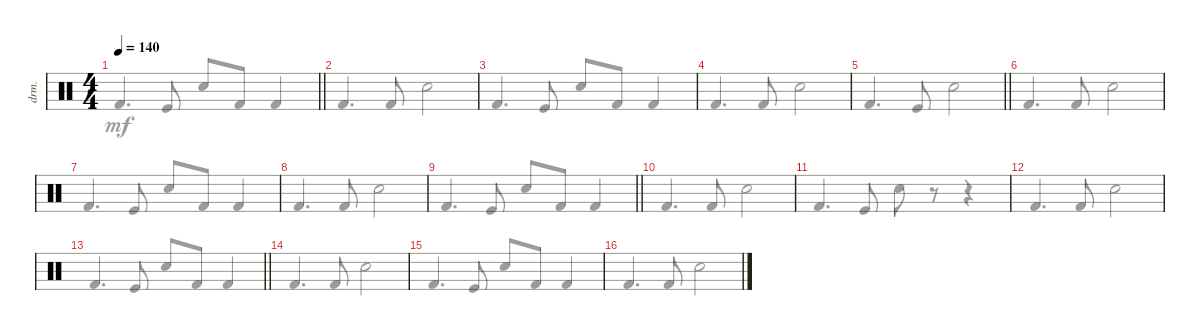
\defaultSystemsLayout 4
\bracketExtendMode groupsimilarinstruments
\otherSystemsTrackNameOrientation horizontal
\chordDiagramsInScore
\track ("Drumkit" "drm.") {instrument percussion}
\staff {score}
\articulation defaults
\voice
\ts (4 4)
\tempo 140
\clef neutral
\barLineRight lightlight
\ks c
|
|
|
|
\barLineRight lightlight
|
|
|
|
\barLineRight lightlight
|
|
|
|
\barLineRight lightlight
|
|
|
\voice
\clef neutral
\barLineRight lightlight
\ks c "Kick (hit) 2".4{d dy mf beam Up} "Kick (hit)".8{beam Up} "Snare (hit) 2".8{beam Up} "Kick (hit) 2".8{beam Up} "Kick (hit) 2".4{beam Up}
|
"Kick (hit) 2".4{d beam Up} "Kick (hit) 2".8{beam Up} "Snare (hit) 2".2{beam Down} |
"Kick (hit) 2".4{d beam Up} "Kick (hit)".8{beam Up} "Snare (hit) 2".8{beam Up} "Kick (hit) 2".8{beam Up} "Kick (hit) 2".4{beam Up} |
"Kick (hit) 2".4{d beam Up} "Kick (hit) 2".8{beam Up} "Snare (hit) 2".2{beam Down} |
\barLineRight lightlight "Kick (hit) 2".4{d beam Up} "Kick (hit)".8{beam Up} "Snare (hit) 2".2{beam Down}
|
"Kick (hit) 2".4{d beam Up} "Kick (hit) 2".8{beam Up} "Snare (hit) 2".2{beam Down} |
"Kick (hit) 2".4{d beam Up} "Kick (hit)".8{beam Up} "Snare (hit) 2".8{beam Up} "Kick (hit) 2".8{beam Up} "Kick (hit) 2".4{beam Up} |
"Kick (hit) 2".4{d beam Up} "Kick (hit) 2".8{beam Up} "Snare (hit) 2".2{beam Down} |
\barLineRight lightlight "Kick (hit) 2".4{d beam Up} "Kick (hit)".8{beam Up} "Snare (hit) 2".8{beam Up} "Kick (hit) 2".8{beam Up} "Kick (hit) 2".4{beam Up}
|
"Kick (hit) 2".4{d beam Up} "Kick (hit) 2".8{beam Up} "Snare (hit) 2".2{beam Down} |
"Kick (hit) 2".4{d beam Up} "Kick (hit)".8{beam Up} "Snare (hit) 2".8{beam Down} r.8{beam Down} r.4{beam Down} |
"Kick (hit) 2".4{d beam Up} "Kick (hit) 2".8{beam Up} "Snare (hit) 2".2{beam Down} |
\barLineRight lightlight "Kick (hit) 2".4{d beam Up} "Kick (hit)".8{beam Up} "Snare (hit) 2".8{beam Up} "Kick (hit) 2".8{beam Up} "Kick (hit) 2".4{beam Up}
|
"Kick (hit) 2".4{d beam Up} "Kick (hit) 2".8{beam Up} "Snare (hit) 2".2{beam Down} |
"Kick (hit) 2".4{d beam Up} "Kick (hit)".8{beam Up} "Snare (hit) 2".8{beam Up} "Kick (hit) 2".8{beam Up} "Kick (hit) 2".4{beam Up} |
"Kick (hit) 2".4{d beam Up} "Kick (hit) 2".8{beam Up} "Snare (hit) 2".2{beam Down}
